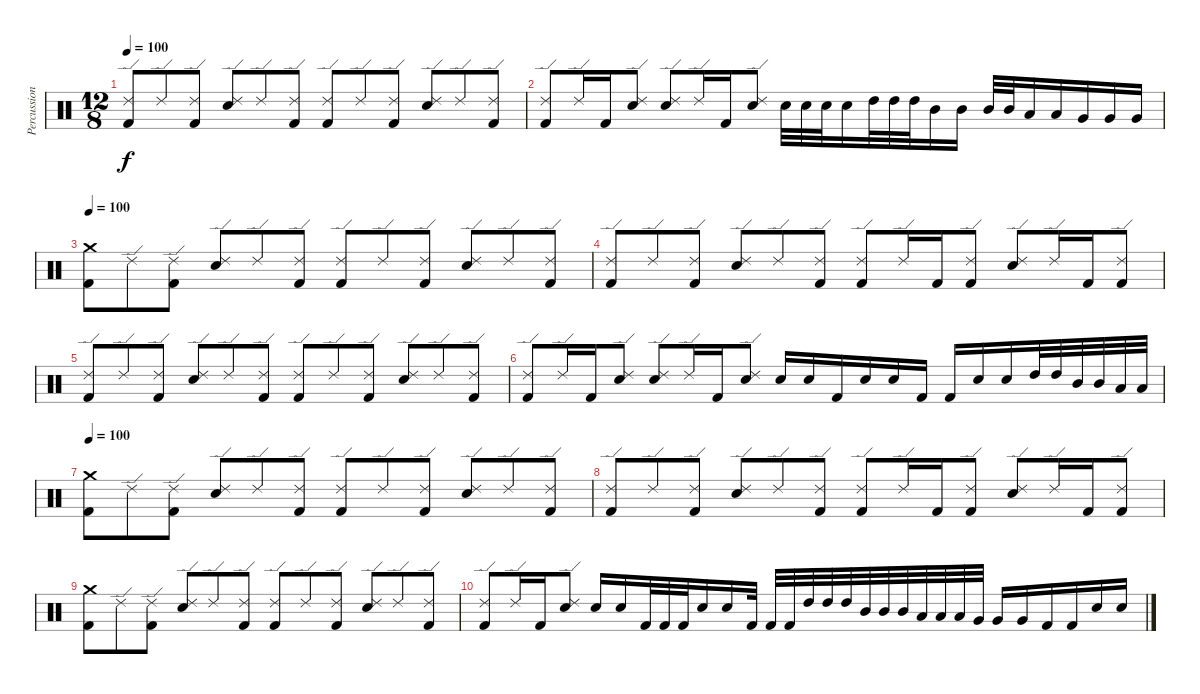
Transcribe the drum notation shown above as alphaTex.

\track ("Percussions" "Percussion") {instrument percussion}
\staff {score}
\articulation defaults
\ts (12 8)
\tempo 100
\clef neutral
\ks c
("Ride (edge) 2" "Kick (hit) 2").8{dy f} "Ride (edge) 2".8 ("Ride (edge) 2" "Kick (hit) 2").8 ("Ride (edge) 2" "Electric Snare (hit)").8 "Ride (edge) 2".8 ("Ride (edge) 2" "Kick (hit) 2").8 ("Ride (edge) 2" "Kick (hit) 2").8 "Ride (edge) 2".8 ("Ride (edge) 2" "Kick (hit) 2").8 ("Ride (edge) 2" "Electric Snare (hit)").8 "Ride (edge) 2".8 ("Ride (edge) 2" "Kick (hit) 2").8 |
("Ride (edge) 2" "Kick (hit) 2").8 "Ride (edge) 2".16 "Kick (hit) 2".16 ("Ride (edge) 2" "Electric Snare (hit)").8 ("Ride (edge) 2" "Electric Snare (hit)").8 "Ride (edge) 2".16 "Kick (hit) 2".16 ("Ride (edge) 2" "Electric Snare (hit)").8 "Electric Snare (hit)".32 "Electric Snare (hit)".32 "Electric Snare (hit)".32 "Electric Snare (hit)".16 "High Tom (hit)".32 "High Tom (hit)".32 "High Tom (hit)".32 "Mid Tom (hit)".16 "Mid Tom (hit)".16 "Mid Tom (hit)".32 "Mid Tom (hit)".32 "Low Tom (hit)".16 "Low Tom (hit)".16 "Very Low Tom (hit)".16 "Very Low Tom (hit)".16 "Very Low Tom (hit)".16 |
\tempo 100
("Crash medium (hit)" "Kick (hit) 2").8 "Ride (edge) 2".8 ("Ride (edge) 2" "Kick (hit) 2").8 ("Ride (edge) 2" "Electric Snare (hit)").8 "Ride (edge) 2".8 ("Ride (edge) 2" "Kick (hit) 2").8 ("Ride (edge) 2" "Kick (hit) 2").8 "Ride (edge) 2".8 ("Ride (edge) 2" "Kick (hit) 2").8 ("Ride (edge) 2" "Electric Snare (hit)").8 "Ride (edge) 2".8 ("Ride (edge) 2" "Kick (hit) 2").8 |
("Ride (edge) 2" "Kick (hit) 2").8 "Ride (edge) 2".8 ("Ride (edge) 2" "Kick (hit) 2").8 ("Ride (edge) 2" "Electric Snare (hit)").8 "Ride (edge) 2".8 ("Ride (edge) 2" "Kick (hit) 2").8 ("Ride (edge) 2" "Kick (hit) 2").8 "Ride (edge) 2".16 "Kick (hit) 2".16 ("Ride (edge) 2" "Kick (hit) 2").8 ("Ride (edge) 2" "Electric Snare (hit)").8 "Ride (edge) 2".16 "Kick (hit) 2".16 ("Ride (edge) 2" "Kick (hit) 2").8 |
("Ride (edge) 2" "Kick (hit) 2").8 "Ride (edge) 2".8 ("Ride (edge) 2" "Kick (hit) 2").8 ("Ride (edge) 2" "Electric Snare (hit)").8 "Ride (edge) 2".8 ("Ride (edge) 2" "Kick (hit) 2").8 ("Ride (edge) 2" "Kick (hit) 2").8 "Ride (edge) 2".8 ("Ride (edge) 2" "Kick (hit) 2").8 ("Ride (edge) 2" "Electric Snare (hit)").8 "Ride (edge) 2".8 ("Ride (edge) 2" "Kick (hit) 2").8 |
("Ride (edge) 2" "Kick (hit) 2").8 "Ride (edge) 2".16 "Kick (hit) 2".16 ("Ride (edge) 2" "Electric Snare (hit)").8 ("Ride (edge) 2" "Electric Snare (hit)").8 "Ride (edge) 2".16 "Kick (hit) 2".16 ("Ride (edge) 2" "Electric Snare (hit)").8 "Electric Snare (hit)".16 "Electric Snare (hit)".16 "Kick (hit) 2".16 "Electric Snare (hit)".16 "Electric Snare (hit)".16 "Kick (hit) 2".16 "Kick (hit) 2".16 "Electric Snare (hit)".16 "Electric Snare (hit)".16 "High Tom (hit)".32 "High Tom (hit)".32 "Mid Tom (hit)".32 "Mid Tom (hit)".32 "Low Tom (hit)".32 "Low Tom (hit)".32 |
\tempo 100
("Crash medium (hit)" "Kick (hit) 2").8 "Ride (edge) 2".8 ("Ride (edge) 2" "Kick (hit) 2").8 ("Ride (edge) 2" "Electric Snare (hit)").8 "Ride (edge) 2".8 ("Ride (edge) 2" "Kick (hit) 2").8 ("Ride (edge) 2" "Kick (hit) 2").8 "Ride (edge) 2".8 ("Ride (edge) 2" "Kick (hit) 2").8 ("Ride (edge) 2" "Electric Snare (hit)").8 "Ride (edge) 2".8 ("Ride (edge) 2" "Kick (hit) 2").8 |
("Ride (edge) 2" "Kick (hit) 2").8 "Ride (edge) 2".8 ("Ride (edge) 2" "Kick (hit) 2").8 ("Ride (edge) 2" "Electric Snare (hit)").8 "Ride (edge) 2".8 ("Ride (edge) 2" "Kick (hit) 2").8 ("Ride (edge) 2" "Kick (hit) 2").8 "Ride (edge) 2".16 "Kick (hit) 2".16 ("Ride (edge) 2" "Kick (hit) 2").8 ("Ride (edge) 2" "Electric Snare (hit)").8 "Ride (edge) 2".16 "Kick (hit) 2".16 ("Ride (edge) 2" "Kick (hit) 2").8 |
("Crash medium (hit)" "Kick (hit) 2").8 "Ride (edge) 2".8 ("Ride (edge) 2" "Kick (hit) 2").8 ("Ride (edge) 2" "Electric Snare (hit)").8 "Ride (edge) 2".8 ("Ride (edge) 2" "Kick (hit) 2").8 ("Ride (edge) 2" "Kick (hit) 2").8 "Ride (edge) 2".8 ("Ride (edge) 2" "Kick (hit) 2").8 ("Ride (edge) 2" "Electric Snare (hit)").8 "Ride (edge) 2".8 ("Ride (edge) 2" "Kick (hit) 2").8 |
("Ride (edge) 2" "Kick (hit) 2").8 "Ride (edge) 2".16 "Kick (hit) 2".16 ("Ride (edge) 2" "Electric Snare (hit)").8 "Electric Snare (hit)".16 "Electric Snare (hit)".16 "Kick (hit) 2".32 "Kick (hit) 2".32 "Kick (hit) 2".32 "Electric Snare (hit)".16 "Electric Snare (hit)".16 "Kick (hit) 2".32 "Kick (hit) 2".32 "Kick (hit) 2".32 "High Tom (hit)".32 "High Tom (hit)".32 "High Tom (hit)".32 "Mid Tom (hit)".32 "Mid Tom (hit)".32 "Mid Tom (hit)".32 "Low Tom (hit)".32 "Low Tom (hit)".32 "Low Tom (hit)".32 "Very Low Tom (hit)".32 "Very Low Tom (hit)".16 "Very Low Tom (hit)".16 "Kick (hit) 2".16 "Kick (hit) 2".16 "Electric Snare (hit)".16 "Electric Snare (hit)".16
